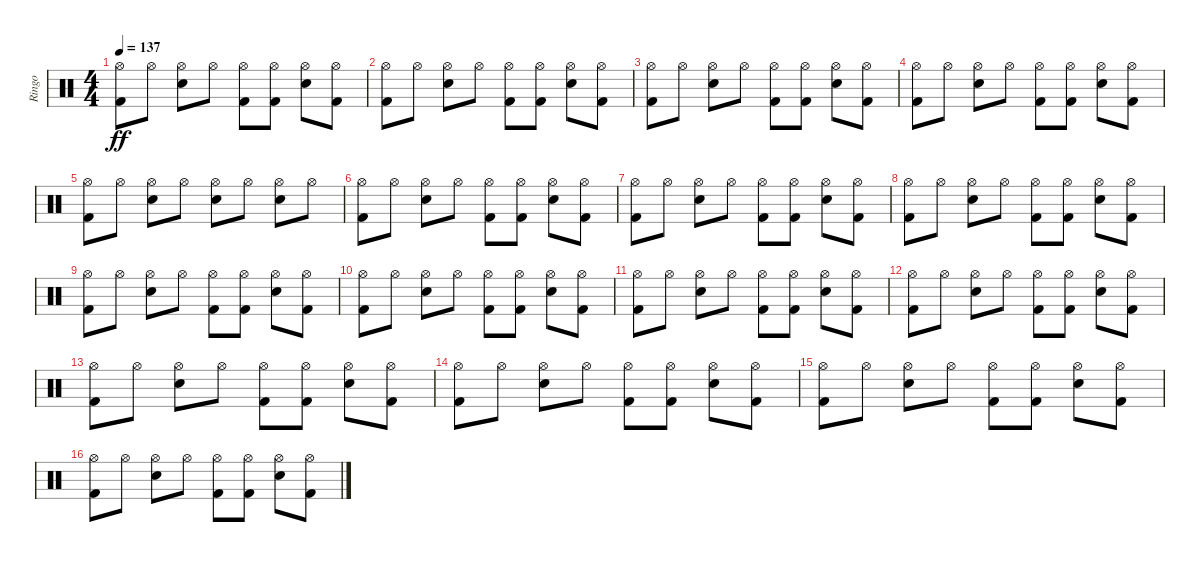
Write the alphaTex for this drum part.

\track ("Ringo" "Ringo") {instrument percussion}
\staff {score}
\articulation defaults
\ts (4 4)
\tempo 137
\clef neutral
\ks c
("Kick (hit) 2" "Hi-Hat (open)").8{dy ff} "Hi-Hat (open)".8 ("Snare (hit) 2" "Hi-Hat (open)").8 "Hi-Hat (open)".8 ("Kick (hit) 2" "Hi-Hat (open)").8 ("Kick (hit) 2" "Hi-Hat (open)").8 ("Snare (hit) 2" "Hi-Hat (open)").8 ("Kick (hit) 2" "Hi-Hat (open)").8 |
("Kick (hit) 2" "Hi-Hat (open)").8 "Hi-Hat (open)".8 ("Snare (hit) 2" "Hi-Hat (open)").8 "Hi-Hat (open)".8 ("Kick (hit) 2" "Hi-Hat (open)").8 ("Kick (hit) 2" "Hi-Hat (open)").8 ("Snare (hit) 2" "Hi-Hat (open)").8 ("Kick (hit) 2" "Hi-Hat (open)").8 |
("Kick (hit) 2" "Hi-Hat (open)").8 "Hi-Hat (open)".8 ("Snare (hit) 2" "Hi-Hat (open)").8 "Hi-Hat (open)".8 ("Kick (hit) 2" "Hi-Hat (open)").8 ("Kick (hit) 2" "Hi-Hat (open)").8 ("Snare (hit) 2" "Hi-Hat (open)").8 ("Kick (hit) 2" "Hi-Hat (open)").8 |
("Kick (hit) 2" "Hi-Hat (open)").8 "Hi-Hat (open)".8 ("Snare (hit) 2" "Hi-Hat (open)").8 "Hi-Hat (open)".8 ("Kick (hit) 2" "Hi-Hat (open)").8 ("Kick (hit) 2" "Hi-Hat (open)").8 ("Snare (hit) 2" "Hi-Hat (open)").8 ("Kick (hit) 2" "Hi-Hat (open)").8 |
("Kick (hit) 2" "Hi-Hat (open)").8 "Hi-Hat (open)".8 ("Snare (hit) 2" "Hi-Hat (open)").8 "Hi-Hat (open)".8 ("Snare (hit) 2" "Hi-Hat (open)").8 "Hi-Hat (open)".8 ("Snare (hit) 2" "Hi-Hat (open)").8 "Hi-Hat (open)".8 |
("Kick (hit) 2" "Hi-Hat (open)").8 "Hi-Hat (open)".8 ("Snare (hit) 2" "Hi-Hat (open)").8 "Hi-Hat (open)".8 ("Kick (hit) 2" "Hi-Hat (open)").8 ("Kick (hit) 2" "Hi-Hat (open)").8 ("Snare (hit) 2" "Hi-Hat (open)").8 ("Kick (hit) 2" "Hi-Hat (open)").8 |
("Kick (hit) 2" "Hi-Hat (open)").8 "Hi-Hat (open)".8 ("Snare (hit) 2" "Hi-Hat (open)").8 "Hi-Hat (open)".8 ("Kick (hit) 2" "Hi-Hat (open)").8 ("Kick (hit) 2" "Hi-Hat (open)").8 ("Snare (hit) 2" "Hi-Hat (open)").8 ("Kick (hit) 2" "Hi-Hat (open)").8 |
("Kick (hit) 2" "Hi-Hat (open)").8 "Hi-Hat (open)".8 ("Snare (hit) 2" "Hi-Hat (open)").8 "Hi-Hat (open)".8 ("Kick (hit) 2" "Hi-Hat (open)").8 ("Kick (hit) 2" "Hi-Hat (open)").8 ("Snare (hit) 2" "Hi-Hat (open)").8 ("Kick (hit) 2" "Hi-Hat (open)").8 |
("Kick (hit) 2" "Hi-Hat (open)").8 "Hi-Hat (open)".8 ("Snare (hit) 2" "Hi-Hat (open)").8 "Hi-Hat (open)".8 ("Kick (hit) 2" "Hi-Hat (open)").8 ("Kick (hit) 2" "Hi-Hat (open)").8 ("Snare (hit) 2" "Hi-Hat (open)").8 ("Kick (hit) 2" "Hi-Hat (open)").8 |
("Kick (hit) 2" "Hi-Hat (open)").8 "Hi-Hat (open)".8 ("Snare (hit) 2" "Hi-Hat (open)").8 "Hi-Hat (open)".8 ("Kick (hit) 2" "Hi-Hat (open)").8 ("Kick (hit) 2" "Hi-Hat (open)").8 ("Snare (hit) 2" "Hi-Hat (open)").8 ("Kick (hit) 2" "Hi-Hat (open)").8 |
("Kick (hit) 2" "Hi-Hat (open)").8 "Hi-Hat (open)".8 ("Snare (hit) 2" "Hi-Hat (open)").8 "Hi-Hat (open)".8 ("Kick (hit) 2" "Hi-Hat (open)").8 ("Kick (hit) 2" "Hi-Hat (open)").8 ("Snare (hit) 2" "Hi-Hat (open)").8 ("Kick (hit) 2" "Hi-Hat (open)").8 |
("Kick (hit) 2" "Hi-Hat (open)").8 "Hi-Hat (open)".8 ("Snare (hit) 2" "Hi-Hat (open)").8 "Hi-Hat (open)".8 ("Kick (hit) 2" "Hi-Hat (open)").8 ("Kick (hit) 2" "Hi-Hat (open)").8 ("Snare (hit) 2" "Hi-Hat (open)").8 ("Kick (hit) 2" "Hi-Hat (open)").8 |
("Kick (hit) 2" "Hi-Hat (open)").8 "Hi-Hat (open)".8 ("Snare (hit) 2" "Hi-Hat (open)").8 "Hi-Hat (open)".8 ("Kick (hit) 2" "Hi-Hat (open)").8 ("Kick (hit) 2" "Hi-Hat (open)").8 ("Snare (hit) 2" "Hi-Hat (open)").8 ("Kick (hit) 2" "Hi-Hat (open)").8 |
("Kick (hit) 2" "Hi-Hat (open)").8 "Hi-Hat (open)".8 ("Snare (hit) 2" "Hi-Hat (open)").8 "Hi-Hat (open)".8 ("Kick (hit) 2" "Hi-Hat (open)").8 ("Kick (hit) 2" "Hi-Hat (open)").8 ("Snare (hit) 2" "Hi-Hat (open)").8 ("Kick (hit) 2" "Hi-Hat (open)").8 |
("Kick (hit) 2" "Hi-Hat (open)").8 "Hi-Hat (open)".8 ("Snare (hit) 2" "Hi-Hat (open)").8 "Hi-Hat (open)".8 ("Kick (hit) 2" "Hi-Hat (open)").8 ("Kick (hit) 2" "Hi-Hat (open)").8 ("Snare (hit) 2" "Hi-Hat (open)").8 ("Kick (hit) 2" "Hi-Hat (open)").8 |
("Kick (hit) 2" "Hi-Hat (open)").8 "Hi-Hat (open)".8 ("Snare (hit) 2" "Hi-Hat (open)").8 "Hi-Hat (open)".8 ("Kick (hit) 2" "Hi-Hat (open)").8 ("Kick (hit) 2" "Hi-Hat (open)").8 ("Snare (hit) 2" "Hi-Hat (open)").8 ("Kick (hit) 2" "Hi-Hat (open)").8
